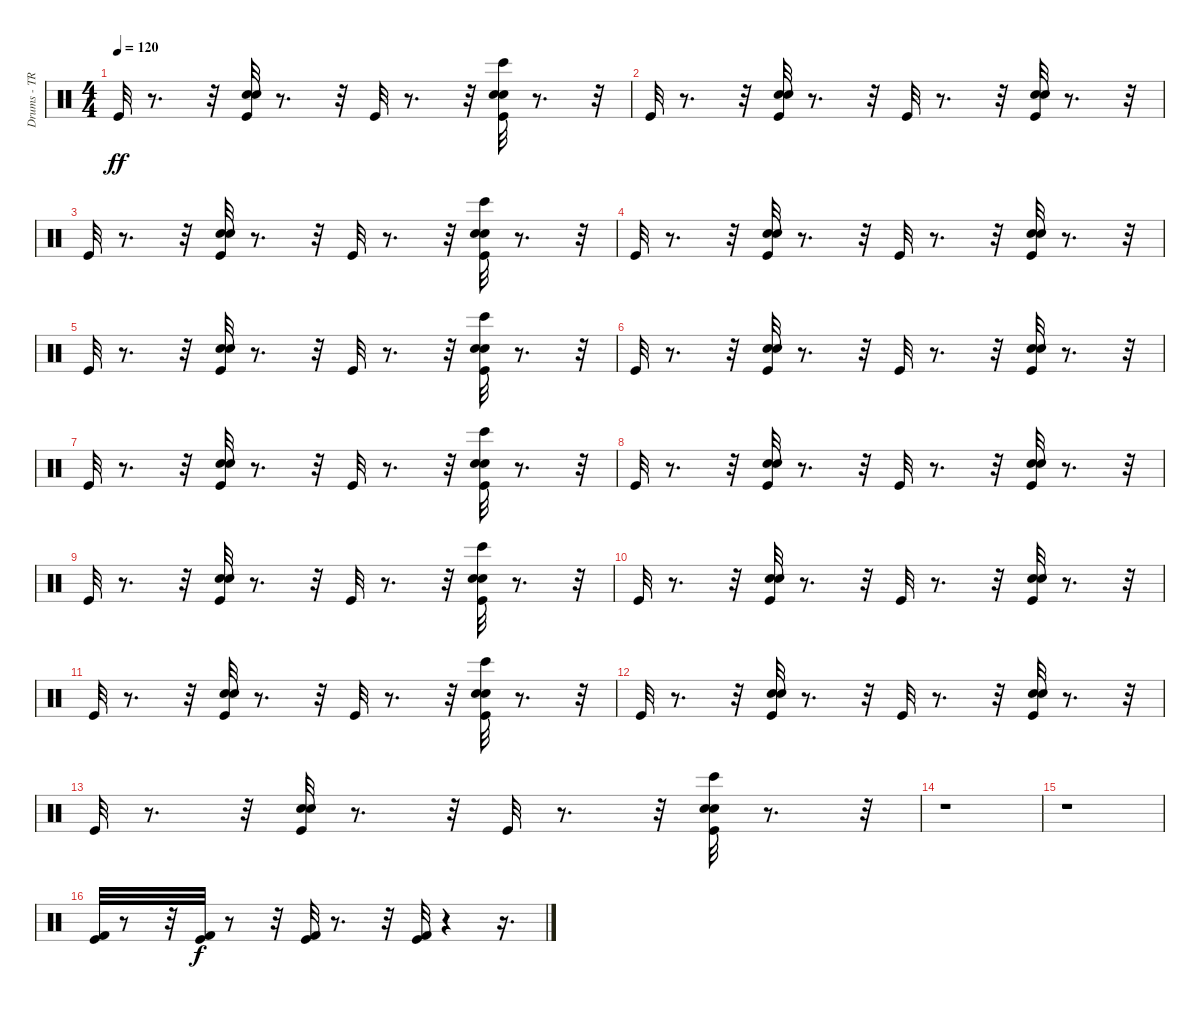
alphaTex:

\track ("Drums - TR" "Drums - TR") {instrument percussion}
\staff {score}
\articulation defaults
\ts (4 4)
\tempo 120
\clef neutral
\ks c "Kick (hit)".32{dy ff}
r.8{d} r.32 ("Kick (hit)" "Snare (hit) 2" "Hand Clap (hit)").32 r.8{d} r.32 "Kick (hit)".32 r.8{d} r.32 ("Kick (hit)" "Snare (hit) 2" "Hand Clap (hit)" "Bongo High (hit)").32 r.8{d} r.32 |
"Kick (hit)".32 r.8{d} r.32 ("Kick (hit)" "Snare (hit) 2" "Hand Clap (hit)").32 r.8{d} r.32 "Kick (hit)".32 r.8{d} r.32 ("Kick (hit)" "Snare (hit) 2" "Hand Clap (hit)").32 r.8{d} r.32 |
"Kick (hit)".32 r.8{d} r.32 ("Kick (hit)" "Snare (hit) 2" "Hand Clap (hit)").32 r.8{d} r.32 "Kick (hit)".32 r.8{d} r.32 ("Kick (hit)" "Snare (hit) 2" "Hand Clap (hit)" "Bongo High (hit)").32 r.8{d} r.32 |
"Kick (hit)".32 r.8{d} r.32 ("Kick (hit)" "Snare (hit) 2" "Hand Clap (hit)").32 r.8{d} r.32 "Kick (hit)".32 r.8{d} r.32 ("Kick (hit)" "Snare (hit) 2" "Hand Clap (hit)").32 r.8{d} r.32 |
"Kick (hit)".32 r.8{d} r.32 ("Kick (hit)" "Snare (hit) 2" "Hand Clap (hit)").32 r.8{d} r.32 "Kick (hit)".32 r.8{d} r.32 ("Kick (hit)" "Snare (hit) 2" "Hand Clap (hit)" "Bongo High (hit)").32 r.8{d} r.32 |
"Kick (hit)".32 r.8{d} r.32 ("Kick (hit)" "Snare (hit) 2" "Hand Clap (hit)").32 r.8{d} r.32 "Kick (hit)".32 r.8{d} r.32 ("Kick (hit)" "Snare (hit) 2" "Hand Clap (hit)").32 r.8{d} r.32 |
"Kick (hit)".32 r.8{d} r.32 ("Kick (hit)" "Snare (hit) 2" "Hand Clap (hit)").32 r.8{d} r.32 "Kick (hit)".32 r.8{d} r.32 ("Kick (hit)" "Snare (hit) 2" "Hand Clap (hit)" "Bongo High (hit)").32 r.8{d} r.32 |
"Kick (hit)".32 r.8{d} r.32 ("Kick (hit)" "Snare (hit) 2" "Hand Clap (hit)").32 r.8{d} r.32 "Kick (hit)".32 r.8{d} r.32 ("Kick (hit)" "Snare (hit) 2" "Hand Clap (hit)").32 r.8{d} r.32 |
"Kick (hit)".32 r.8{d} r.32 ("Kick (hit)" "Snare (hit) 2" "Hand Clap (hit)").32 r.8{d} r.32 "Kick (hit)".32 r.8{d} r.32 ("Kick (hit)" "Snare (hit) 2" "Hand Clap (hit)" "Bongo High (hit)").32 r.8{d} r.32 |
"Kick (hit)".32 r.8{d} r.32 ("Kick (hit)" "Snare (hit) 2" "Hand Clap (hit)").32 r.8{d} r.32 "Kick (hit)".32 r.8{d} r.32 ("Kick (hit)" "Snare (hit) 2" "Hand Clap (hit)").32 r.8{d} r.32 |
"Kick (hit)".32 r.8{d} r.32 ("Kick (hit)" "Snare (hit) 2" "Hand Clap (hit)").32 r.8{d} r.32 "Kick (hit)".32 r.8{d} r.32 ("Kick (hit)" "Snare (hit) 2" "Hand Clap (hit)" "Bongo High (hit)").32 r.8{d} r.32 |
"Kick (hit)".32 r.8{d} r.32 ("Kick (hit)" "Snare (hit) 2" "Hand Clap (hit)").32 r.8{d} r.32 "Kick (hit)".32 r.8{d} r.32 ("Kick (hit)" "Snare (hit) 2" "Hand Clap (hit)").32 r.8{d} r.32 |
"Kick (hit)".32 r.8{d} r.32 ("Kick (hit)" "Snare (hit) 2" "Hand Clap (hit)").32 r.8{d} r.32 "Kick (hit)".32 r.8{d} r.32 ("Kick (hit)" "Snare (hit) 2" "Hand Clap (hit)" "Bongo High (hit)").32 r.8{d} r.32 |
r.1 |
r.1 |
("Kick (hit)" "Kick (hit) 2").32 r.8 r.32 ("Kick (hit)" "Kick (hit) 2").32{dy f} r.8 r.32 ("Kick (hit)" "Kick (hit) 2").32 r.8{d} r.32 ("Kick (hit)" "Kick (hit) 2").32 r.4 r.16{d}
